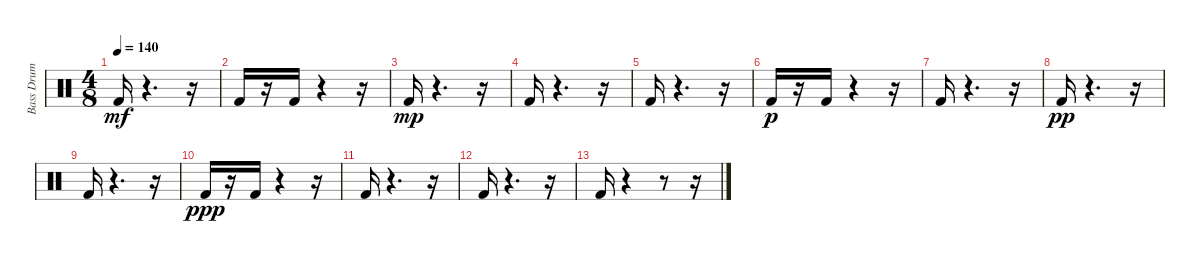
\track ("Bass Drum" "Bass Drum") {instrument percussion}
\staff {score}
\articulation defaults
\ts (4 8)
\tempo 140
\clef neutral
\ks c "Kick (hit) 2".16{dy mf}
r.4{d} r.16 |
"Kick (hit) 2".16 r.16 "Kick (hit) 2".16 r.4 r.16 |
"Kick (hit) 2".16{dy mp} r.4{d} r.16 |
"Kick (hit) 2".16 r.4{d} r.16 |
"Kick (hit) 2".16 r.4{d} r.16 |
"Kick (hit) 2".16{dy p} r.16 "Kick (hit) 2".16 r.4 r.16 |
"Kick (hit) 2".16 r.4{d} r.16 |
"Kick (hit) 2".16{dy pp} r.4{d} r.16 |
"Kick (hit) 2".16 r.4{d} r.16 |
"Kick (hit) 2".16{dy ppp} r.16 "Kick (hit) 2".16 r.4 r.16 |
"Kick (hit) 2".16 r.4{d} r.16 |
"Kick (hit) 2".16 r.4{d} r.16 |
"Kick (hit) 2".16 r.4 r.8 r.16
